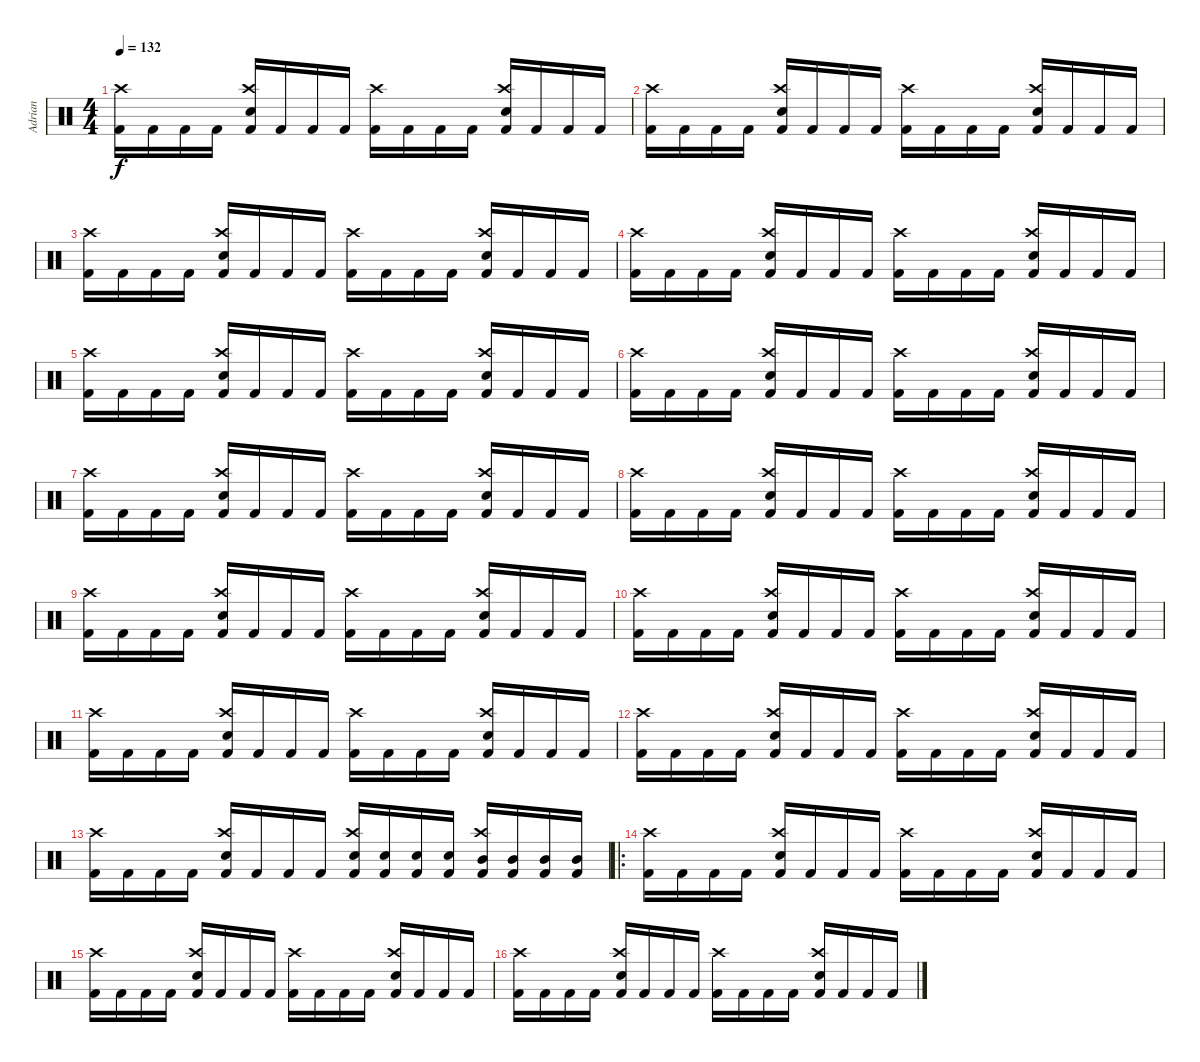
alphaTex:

\track ("Adrian" "Adrian") {instrument percussion}
\staff {score}
\articulation defaults
\ts (4 4)
\tempo 132
\clef neutral
\ks c
("Kick (hit) 2" "Crash high (hit)").16{dy f} "Kick (hit) 2".16 "Kick (hit) 2".16 "Kick (hit) 2".16 ("Kick (hit) 2" "Snare (hit) 2" "Crash high (hit)").16 "Kick (hit) 2".16 "Kick (hit) 2".16 "Kick (hit) 2".16 ("Kick (hit) 2" "Crash high (hit)").16 "Kick (hit) 2".16 "Kick (hit) 2".16 "Kick (hit) 2".16 ("Kick (hit) 2" "Snare (hit) 2" "Crash high (hit)").16 "Kick (hit) 2".16 "Kick (hit) 2".16 "Kick (hit) 2".16 |
("Kick (hit) 2" "Crash high (hit)").16 "Kick (hit) 2".16 "Kick (hit) 2".16 "Kick (hit) 2".16 ("Kick (hit) 2" "Snare (hit) 2" "Crash high (hit)").16 "Kick (hit) 2".16 "Kick (hit) 2".16 "Kick (hit) 2".16 ("Kick (hit) 2" "Crash high (hit)").16 "Kick (hit) 2".16 "Kick (hit) 2".16 "Kick (hit) 2".16 ("Kick (hit) 2" "Snare (hit) 2" "Crash high (hit)").16 "Kick (hit) 2".16 "Kick (hit) 2".16 "Kick (hit) 2".16 |
("Kick (hit) 2" "Crash high (hit)").16 "Kick (hit) 2".16 "Kick (hit) 2".16 "Kick (hit) 2".16 ("Kick (hit) 2" "Snare (hit) 2" "Crash high (hit)").16 "Kick (hit) 2".16 "Kick (hit) 2".16 "Kick (hit) 2".16 ("Kick (hit) 2" "Crash high (hit)").16 "Kick (hit) 2".16 "Kick (hit) 2".16 "Kick (hit) 2".16 ("Kick (hit) 2" "Snare (hit) 2" "Crash high (hit)").16 "Kick (hit) 2".16 "Kick (hit) 2".16 "Kick (hit) 2".16 |
("Kick (hit) 2" "Crash high (hit)").16 "Kick (hit) 2".16 "Kick (hit) 2".16 "Kick (hit) 2".16 ("Kick (hit) 2" "Snare (hit) 2" "Crash high (hit)").16 "Kick (hit) 2".16 "Kick (hit) 2".16 "Kick (hit) 2".16 ("Kick (hit) 2" "Crash high (hit)").16 "Kick (hit) 2".16 "Kick (hit) 2".16 "Kick (hit) 2".16 ("Kick (hit) 2" "Snare (hit) 2" "Crash high (hit)").16 "Kick (hit) 2".16 "Kick (hit) 2".16 "Kick (hit) 2".16 |
("Kick (hit) 2" "Crash high (hit)").16 "Kick (hit) 2".16 "Kick (hit) 2".16 "Kick (hit) 2".16 ("Kick (hit) 2" "Snare (hit) 2" "Crash high (hit)").16 "Kick (hit) 2".16 "Kick (hit) 2".16 "Kick (hit) 2".16 ("Kick (hit) 2" "Crash high (hit)").16 "Kick (hit) 2".16 "Kick (hit) 2".16 "Kick (hit) 2".16 ("Kick (hit) 2" "Snare (hit) 2" "Crash high (hit)").16 "Kick (hit) 2".16 "Kick (hit) 2".16 "Kick (hit) 2".16 |
("Kick (hit) 2" "Crash high (hit)").16 "Kick (hit) 2".16 "Kick (hit) 2".16 "Kick (hit) 2".16 ("Kick (hit) 2" "Snare (hit) 2" "Crash high (hit)").16 "Kick (hit) 2".16 "Kick (hit) 2".16 "Kick (hit) 2".16 ("Kick (hit) 2" "Crash high (hit)").16 "Kick (hit) 2".16 "Kick (hit) 2".16 "Kick (hit) 2".16 ("Kick (hit) 2" "Snare (hit) 2" "Crash high (hit)").16 "Kick (hit) 2".16 "Kick (hit) 2".16 "Kick (hit) 2".16 |
("Kick (hit) 2" "Crash high (hit)").16 "Kick (hit) 2".16 "Kick (hit) 2".16 "Kick (hit) 2".16 ("Kick (hit) 2" "Snare (hit) 2" "Crash high (hit)").16 "Kick (hit) 2".16 "Kick (hit) 2".16 "Kick (hit) 2".16 ("Kick (hit) 2" "Crash high (hit)").16 "Kick (hit) 2".16 "Kick (hit) 2".16 "Kick (hit) 2".16 ("Kick (hit) 2" "Snare (hit) 2" "Crash high (hit)").16 "Kick (hit) 2".16 "Kick (hit) 2".16 "Kick (hit) 2".16 |
("Kick (hit) 2" "Crash high (hit)").16 "Kick (hit) 2".16 "Kick (hit) 2".16 "Kick (hit) 2".16 ("Kick (hit) 2" "Snare (hit) 2" "Crash high (hit)").16 "Kick (hit) 2".16 "Kick (hit) 2".16 "Kick (hit) 2".16 ("Kick (hit) 2" "Crash high (hit)").16 "Kick (hit) 2".16 "Kick (hit) 2".16 "Kick (hit) 2".16 ("Kick (hit) 2" "Snare (hit) 2" "Crash high (hit)").16 "Kick (hit) 2".16 "Kick (hit) 2".16 "Kick (hit) 2".16 |
("Kick (hit) 2" "Crash high (hit)").16 "Kick (hit) 2".16 "Kick (hit) 2".16 "Kick (hit) 2".16 ("Kick (hit) 2" "Snare (hit) 2" "Crash high (hit)").16 "Kick (hit) 2".16 "Kick (hit) 2".16 "Kick (hit) 2".16 ("Kick (hit) 2" "Crash high (hit)").16 "Kick (hit) 2".16 "Kick (hit) 2".16 "Kick (hit) 2".16 ("Kick (hit) 2" "Snare (hit) 2" "Crash high (hit)").16 "Kick (hit) 2".16 "Kick (hit) 2".16 "Kick (hit) 2".16 |
("Kick (hit) 2" "Crash high (hit)").16 "Kick (hit) 2".16 "Kick (hit) 2".16 "Kick (hit) 2".16 ("Kick (hit) 2" "Snare (hit) 2" "Crash high (hit)").16 "Kick (hit) 2".16 "Kick (hit) 2".16 "Kick (hit) 2".16 ("Kick (hit) 2" "Crash high (hit)").16 "Kick (hit) 2".16 "Kick (hit) 2".16 "Kick (hit) 2".16 ("Kick (hit) 2" "Snare (hit) 2" "Crash high (hit)").16 "Kick (hit) 2".16 "Kick (hit) 2".16 "Kick (hit) 2".16 |
("Kick (hit) 2" "Crash high (hit)").16 "Kick (hit) 2".16 "Kick (hit) 2".16 "Kick (hit) 2".16 ("Kick (hit) 2" "Snare (hit) 2" "Crash high (hit)").16 "Kick (hit) 2".16 "Kick (hit) 2".16 "Kick (hit) 2".16 ("Kick (hit) 2" "Crash high (hit)").16 "Kick (hit) 2".16 "Kick (hit) 2".16 "Kick (hit) 2".16 ("Kick (hit) 2" "Snare (hit) 2" "Crash high (hit)").16 "Kick (hit) 2".16 "Kick (hit) 2".16 "Kick (hit) 2".16 |
("Kick (hit) 2" "Crash high (hit)").16 "Kick (hit) 2".16 "Kick (hit) 2".16 "Kick (hit) 2".16 ("Kick (hit) 2" "Snare (hit) 2" "Crash high (hit)").16 "Kick (hit) 2".16 "Kick (hit) 2".16 "Kick (hit) 2".16 ("Kick (hit) 2" "Crash high (hit)").16 "Kick (hit) 2".16 "Kick (hit) 2".16 "Kick (hit) 2".16 ("Kick (hit) 2" "Snare (hit) 2" "Crash high (hit)").16 "Kick (hit) 2".16 "Kick (hit) 2".16 "Kick (hit) 2".16 |
("Kick (hit) 2" "Crash high (hit)").16 "Kick (hit) 2".16 "Kick (hit) 2".16 "Kick (hit) 2".16 ("Kick (hit) 2" "Snare (hit) 2" "Crash high (hit)").16 "Kick (hit) 2".16 "Kick (hit) 2".16 "Kick (hit) 2".16 ("Kick (hit) 2" "Snare (hit) 2" "Crash high (hit)").16 ("Kick (hit) 2" "Snare (hit) 2").16 ("Kick (hit) 2" "Snare (hit) 2").16 ("Kick (hit) 2" "Snare (hit) 2").16 ("Kick (hit) 2" "Mid Tom (hit)" "Crash high (hit)").16 ("Kick (hit) 2" "Mid Tom (hit)").16 ("Kick (hit) 2" "Mid Tom (hit)").16 ("Kick (hit) 2" "Mid Tom (hit)").16 |
\ro
("Kick (hit) 2" "Crash high (hit)").16 "Kick (hit) 2".16 "Kick (hit) 2".16 "Kick (hit) 2".16 ("Kick (hit) 2" "Snare (hit) 2" "Crash high (hit)").16 "Kick (hit) 2".16 "Kick (hit) 2".16 "Kick (hit) 2".16 ("Kick (hit) 2" "Crash high (hit)").16 "Kick (hit) 2".16 "Kick (hit) 2".16 "Kick (hit) 2".16 ("Kick (hit) 2" "Snare (hit) 2" "Crash high (hit)").16 "Kick (hit) 2".16 "Kick (hit) 2".16 "Kick (hit) 2".16 |
("Kick (hit) 2" "Crash high (hit)").16 "Kick (hit) 2".16 "Kick (hit) 2".16 "Kick (hit) 2".16 ("Kick (hit) 2" "Snare (hit) 2" "Crash high (hit)").16 "Kick (hit) 2".16 "Kick (hit) 2".16 "Kick (hit) 2".16 ("Kick (hit) 2" "Crash high (hit)").16 "Kick (hit) 2".16 "Kick (hit) 2".16 "Kick (hit) 2".16 ("Kick (hit) 2" "Snare (hit) 2" "Crash high (hit)").16 "Kick (hit) 2".16 "Kick (hit) 2".16 "Kick (hit) 2".16 |
("Kick (hit) 2" "Crash high (hit)").16 "Kick (hit) 2".16 "Kick (hit) 2".16 "Kick (hit) 2".16 ("Kick (hit) 2" "Snare (hit) 2" "Crash high (hit)").16 "Kick (hit) 2".16 "Kick (hit) 2".16 "Kick (hit) 2".16 ("Kick (hit) 2" "Crash high (hit)").16 "Kick (hit) 2".16 "Kick (hit) 2".16 "Kick (hit) 2".16 ("Kick (hit) 2" "Snare (hit) 2" "Crash high (hit)").16 "Kick (hit) 2".16 "Kick (hit) 2".16 "Kick (hit) 2".16
